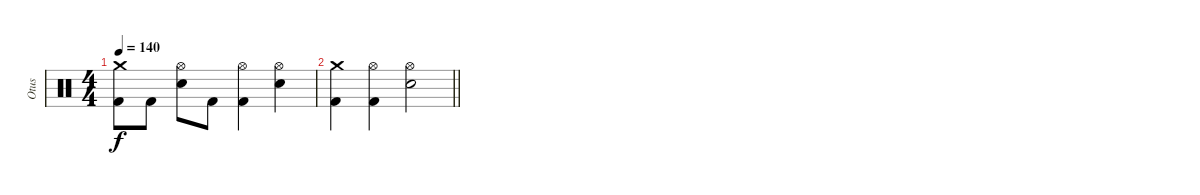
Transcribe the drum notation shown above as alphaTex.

\track ("Otus" "Otus") {instrument percussion}
\staff {score}
\articulation defaults
\ts (4 4)
\tempo 140
\clef neutral
\ks c
("Crash medium (hit)" "Kick (hit) 2").8{dy f} "Kick (hit) 2".8 ("Hi-Hat (open)" "Electric Snare (hit)").8 "Kick (hit) 2".8 ("Hi-Hat (open)" "Kick (hit) 2").4 ("Hi-Hat (open)" "Electric Snare (hit)").4 |
\barLineRight lightlight
("Crash medium (hit)" "Kick (hit) 2").4 ("Hi-Hat (open)" "Kick (hit) 2").4 ("Hi-Hat (open)" "Electric Snare (hit)").2
